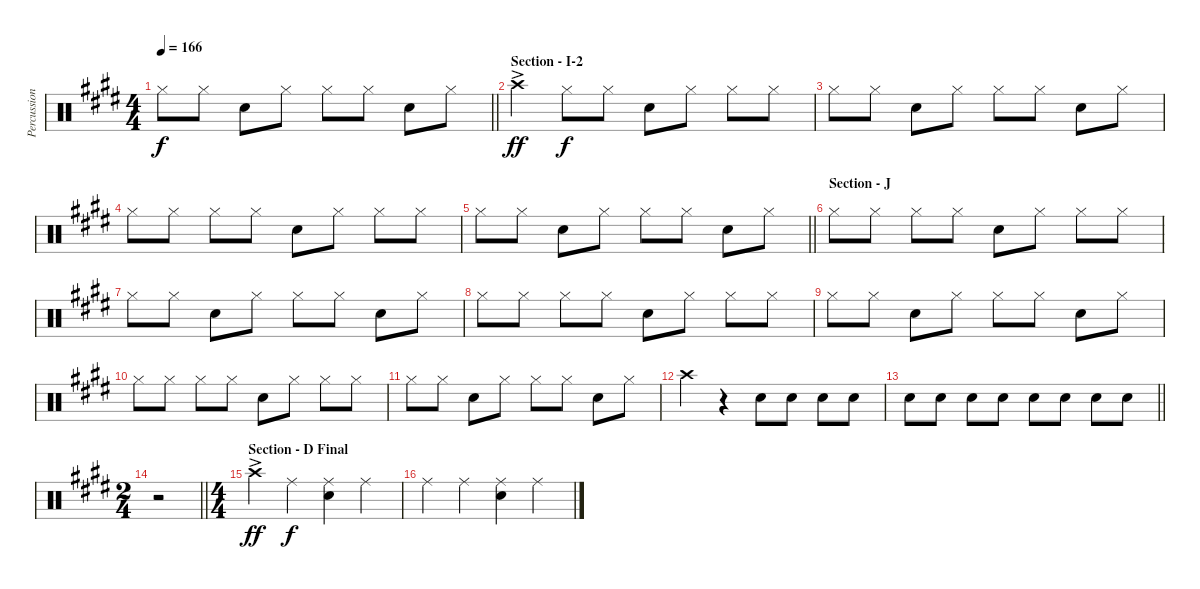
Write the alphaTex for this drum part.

\track ("Percussion - Other" "Percussion") {instrument percussion}
\staff {score}
\articulation defaults
\ts (4 4)
\tempo 166
\clef neutral
\barLineRight lightlight
\ks e "Hi-Hat (closed)".8{dy f} "Hi-Hat (closed)".8 "Snare (hit) 2".8 "Hi-Hat (closed)".8 "Hi-Hat (closed)".8 "Hi-Hat (closed)".8 "Snare (hit) 2".8 "Hi-Hat (closed)".8
|
\section ("" "Section - I-2")
"Crash high (hit)"{ac}.4{dy ff} "Hi-Hat (closed)".8{dy f} "Hi-Hat (closed)".8 "Snare (hit) 2".8 "Hi-Hat (closed)".8 "Hi-Hat (closed)".8 "Hi-Hat (closed)".8 |
"Hi-Hat (closed)".8 "Hi-Hat (closed)".8 "Snare (hit) 2".8 "Hi-Hat (closed)".8 "Hi-Hat (closed)".8 "Hi-Hat (closed)".8 "Snare (hit) 2".8 "Hi-Hat (closed)".8 |
"Hi-Hat (closed)".8 "Hi-Hat (closed)".8 "Hi-Hat (closed)".8 "Hi-Hat (closed)".8 "Snare (hit) 2".8 "Hi-Hat (closed)".8 "Hi-Hat (closed)".8 "Hi-Hat (closed)".8 |
\barLineRight lightlight "Hi-Hat (closed)".8 "Hi-Hat (closed)".8 "Snare (hit) 2".8 "Hi-Hat (closed)".8 "Hi-Hat (closed)".8 "Hi-Hat (closed)".8 "Snare (hit) 2".8 "Hi-Hat (closed)".8
|
\section ("" "Section - J")
"Hi-Hat (closed)".8 "Hi-Hat (closed)".8 "Hi-Hat (closed)".8 "Hi-Hat (closed)".8 "Snare (hit) 2".8 "Hi-Hat (closed)".8 "Hi-Hat (closed)".8 "Hi-Hat (closed)".8 |
"Hi-Hat (closed)".8 "Hi-Hat (closed)".8 "Snare (hit) 2".8 "Hi-Hat (closed)".8 "Hi-Hat (closed)".8 "Hi-Hat (closed)".8 "Snare (hit) 2".8 "Hi-Hat (closed)".8 |
"Hi-Hat (closed)".8 "Hi-Hat (closed)".8 "Hi-Hat (closed)".8 "Hi-Hat (closed)".8 "Snare (hit) 2".8 "Hi-Hat (closed)".8 "Hi-Hat (closed)".8 "Hi-Hat (closed)".8 |
"Hi-Hat (closed)".8 "Hi-Hat (closed)".8 "Snare (hit) 2".8 "Hi-Hat (closed)".8 "Hi-Hat (closed)".8 "Hi-Hat (closed)".8 "Snare (hit) 2".8 "Hi-Hat (closed)".8 |
"Hi-Hat (closed)".8 "Hi-Hat (closed)".8 "Hi-Hat (closed)".8 "Hi-Hat (closed)".8 "Snare (hit) 2".8 "Hi-Hat (closed)".8 "Hi-Hat (closed)".8 "Hi-Hat (closed)".8 |
"Hi-Hat (closed)".8 "Hi-Hat (closed)".8 "Snare (hit) 2".8 "Hi-Hat (closed)".8 "Hi-Hat (closed)".8 "Hi-Hat (closed)".8 "Snare (hit) 2".8 "Hi-Hat (closed)".8 |
"Crash high (hit)".4 r.4 "Snare (hit) 2".8 "Snare (hit) 2".8 "Snare (hit) 2".8 "Snare (hit) 2".8 |
\barLineRight lightlight "Snare (hit) 2".8 "Snare (hit) 2".8 "Snare (hit) 2".8 "Snare (hit) 2".8 "Snare (hit) 2".8 "Snare (hit) 2".8 "Snare (hit) 2".8 "Snare (hit) 2".8
|
\ts (2 4)
\barLineRight lightlight
r.2 |
\ts (4 4)
\section ("" "Section - D Final")
"Crash high (hit)"{ac}.4{dy ff} "Ride (middle)".4{dy f} ("Ride (middle)" "Snare (hit) 2").4 "Ride (middle)".4 |
"Ride (middle)".4 "Ride (middle)".4 ("Ride (middle)" "Snare (hit) 2").4 "Ride (middle)".4
